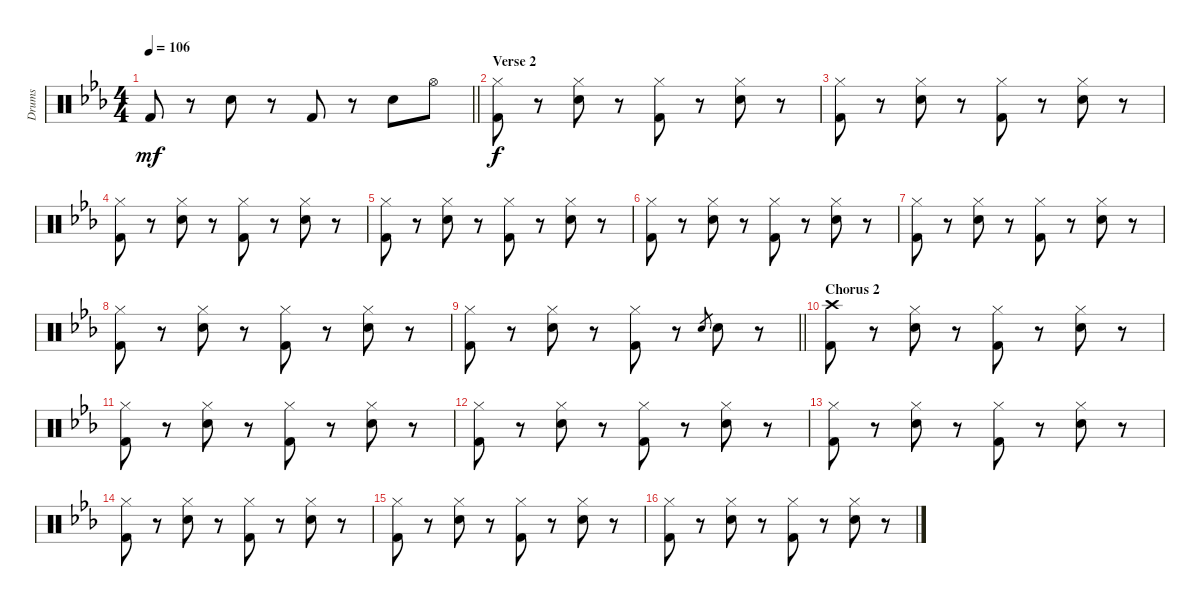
\track ("Drums" "Drums") {instrument percussion}
\staff {score}
\articulation defaults
\ts (4 4)
\tempo 106
\clef neutral
\barLineRight lightlight
\ks cminor "Kick (hit) 2".8{dy mf}
r.8 "Snare (hit) 2".8 r.8 "Kick (hit) 2".8 r.8 "Snare (hit) 2".8 "Hi-Hat (open)".8 |
\section ("" "Verse 2")
("Hi-Hat (closed)" "Kick (hit) 2").8{dy f} r.8 ("Hi-Hat (closed)" "Snare (hit) 2").8 r.8 ("Hi-Hat (closed)" "Kick (hit) 2").8 r.8 ("Hi-Hat (closed)" "Snare (hit) 2").8 r.8 |
("Hi-Hat (closed)" "Kick (hit) 2").8 r.8 ("Hi-Hat (closed)" "Snare (hit) 2").8 r.8 ("Hi-Hat (closed)" "Kick (hit) 2").8 r.8 ("Hi-Hat (closed)" "Snare (hit) 2").8 r.8 |
("Hi-Hat (closed)" "Kick (hit) 2").8 r.8 ("Hi-Hat (closed)" "Snare (hit) 2").8 r.8 ("Hi-Hat (closed)" "Kick (hit) 2").8 r.8 ("Hi-Hat (closed)" "Snare (hit) 2").8 r.8 |
("Hi-Hat (closed)" "Kick (hit) 2").8 r.8 ("Hi-Hat (closed)" "Snare (hit) 2").8 r.8 ("Hi-Hat (closed)" "Kick (hit) 2").8 r.8 ("Hi-Hat (closed)" "Snare (hit) 2").8 r.8 |
("Hi-Hat (closed)" "Kick (hit) 2").8 r.8 ("Hi-Hat (closed)" "Snare (hit) 2").8 r.8 ("Hi-Hat (closed)" "Kick (hit) 2").8 r.8 ("Hi-Hat (closed)" "Snare (hit) 2").8 r.8 |
("Hi-Hat (closed)" "Kick (hit) 2").8 r.8 ("Hi-Hat (closed)" "Snare (hit) 2").8 r.8 ("Hi-Hat (closed)" "Kick (hit) 2").8 r.8 ("Hi-Hat (closed)" "Snare (hit) 2").8 r.8 |
("Hi-Hat (closed)" "Kick (hit) 2").8 r.8 ("Hi-Hat (closed)" "Snare (hit) 2").8 r.8 ("Hi-Hat (closed)" "Kick (hit) 2").8 r.8 ("Hi-Hat (closed)" "Snare (hit) 2").8 r.8 |
\barLineRight lightlight
("Hi-Hat (closed)" "Kick (hit) 2").8 r.8 ("Hi-Hat (closed)" "Snare (hit) 2").8 r.8 ("Hi-Hat (closed)" "Kick (hit) 2").8 r.8 "Snare (hit) 2".8{gr} "Snare (hit) 2".8 r.8 |
\section ("" "Chorus 2")
("Crash high (hit)" "Kick (hit) 2").8 r.8 ("Hi-Hat (closed)" "Snare (hit) 2").8 r.8 ("Hi-Hat (closed)" "Kick (hit) 2").8 r.8 ("Hi-Hat (closed)" "Snare (hit) 2").8 r.8 |
("Hi-Hat (closed)" "Kick (hit) 2").8 r.8 ("Hi-Hat (closed)" "Snare (hit) 2").8 r.8 ("Hi-Hat (closed)" "Kick (hit) 2").8 r.8 ("Hi-Hat (closed)" "Snare (hit) 2").8 r.8 |
("Hi-Hat (closed)" "Kick (hit) 2").8 r.8 ("Hi-Hat (closed)" "Snare (hit) 2").8 r.8 ("Hi-Hat (closed)" "Kick (hit) 2").8 r.8 ("Hi-Hat (closed)" "Snare (hit) 2").8 r.8 |
("Hi-Hat (closed)" "Kick (hit) 2").8 r.8 ("Hi-Hat (closed)" "Snare (hit) 2").8 r.8 ("Hi-Hat (closed)" "Kick (hit) 2").8 r.8 ("Hi-Hat (closed)" "Snare (hit) 2").8 r.8 |
("Hi-Hat (closed)" "Kick (hit) 2").8 r.8 ("Hi-Hat (closed)" "Snare (hit) 2").8 r.8 ("Hi-Hat (closed)" "Kick (hit) 2").8 r.8 ("Hi-Hat (closed)" "Snare (hit) 2").8 r.8 |
("Hi-Hat (closed)" "Kick (hit) 2").8 r.8 ("Hi-Hat (closed)" "Snare (hit) 2").8 r.8 ("Hi-Hat (closed)" "Kick (hit) 2").8 r.8 ("Hi-Hat (closed)" "Snare (hit) 2").8 r.8 |
("Hi-Hat (closed)" "Kick (hit) 2").8 r.8 ("Hi-Hat (closed)" "Snare (hit) 2").8 r.8 ("Hi-Hat (closed)" "Kick (hit) 2").8 r.8 ("Hi-Hat (closed)" "Snare (hit) 2").8 r.8
